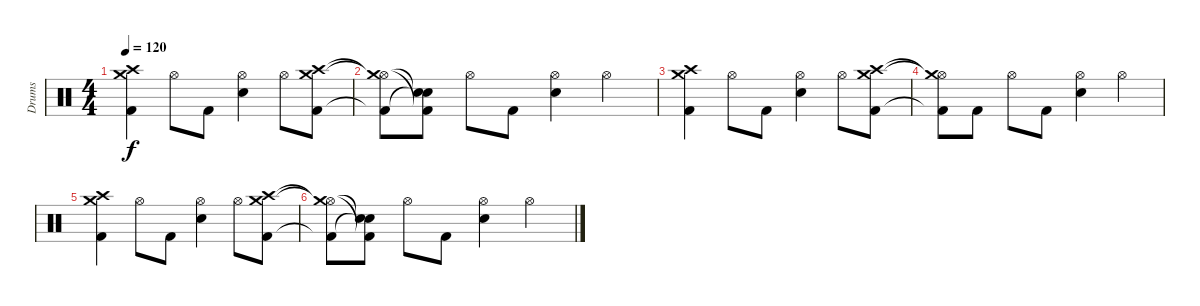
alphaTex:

\track ("Drums" "Drums") {instrument percussion}
\staff {score}
\articulation defaults
\ts (4 4)
\tempo 120
\clef neutral
\ks c
("Crash high (hit)" "Crash medium (hit)" "Kick (hit) 2").4{dy f} "Hi-Hat (open)".8 "Kick (hit) 2".8 ("Hi-Hat (open)" "Snare (hit) 2").4 "Hi-Hat (open)".8 ("Crash high (hit)" "Crash medium (hit)" "Kick (hit) 2").8 |
("Hi-Hat (open)"{t} "Crash medium (hit)"{t} "Kick (hit) 2"{t}).8 ("Kick (hit) 2"{t} "Snare (hit)"{t} "Snare (hit)"{t}).8 "Hi-Hat (open)".8 "Kick (hit) 2".8 ("Hi-Hat (open)" "Snare (hit) 2").4 "Hi-Hat (open)".4 |
("Crash high (hit)" "Crash medium (hit)" "Kick (hit) 2").4{volume 0} "Hi-Hat (open)".8 "Kick (hit) 2".8 ("Hi-Hat (open)" "Snare (hit) 2").4 "Hi-Hat (open)".8 ("Crash high (hit)" "Crash medium (hit)" "Kick (hit) 2").8 |
("Hi-Hat (open)"{t} "Crash medium (hit)"{t} "Kick (hit) 2"{t}).8 "Kick (hit) 2".8 "Hi-Hat (open)".8 "Kick (hit) 2".8 ("Hi-Hat (open)" "Snare (hit) 2").4 "Hi-Hat (open)".4 |
("Crash high (hit)" "Crash medium (hit)" "Kick (hit) 2").4 "Hi-Hat (open)".8 "Kick (hit) 2".8 ("Hi-Hat (open)" "Snare (hit) 2").4 "Hi-Hat (open)".8 ("Crash high (hit)" "Crash medium (hit)" "Kick (hit) 2").8 |
("Hi-Hat (open)"{t} "Crash medium (hit)"{t} "Kick (hit) 2"{t}).8 ("Kick (hit) 2"{t} "Snare (hit)"{t} "Snare (hit)"{t}).8 "Hi-Hat (open)".8 "Kick (hit) 2".8 ("Hi-Hat (open)" "Snare (hit) 2").4 "Hi-Hat (open)".4
